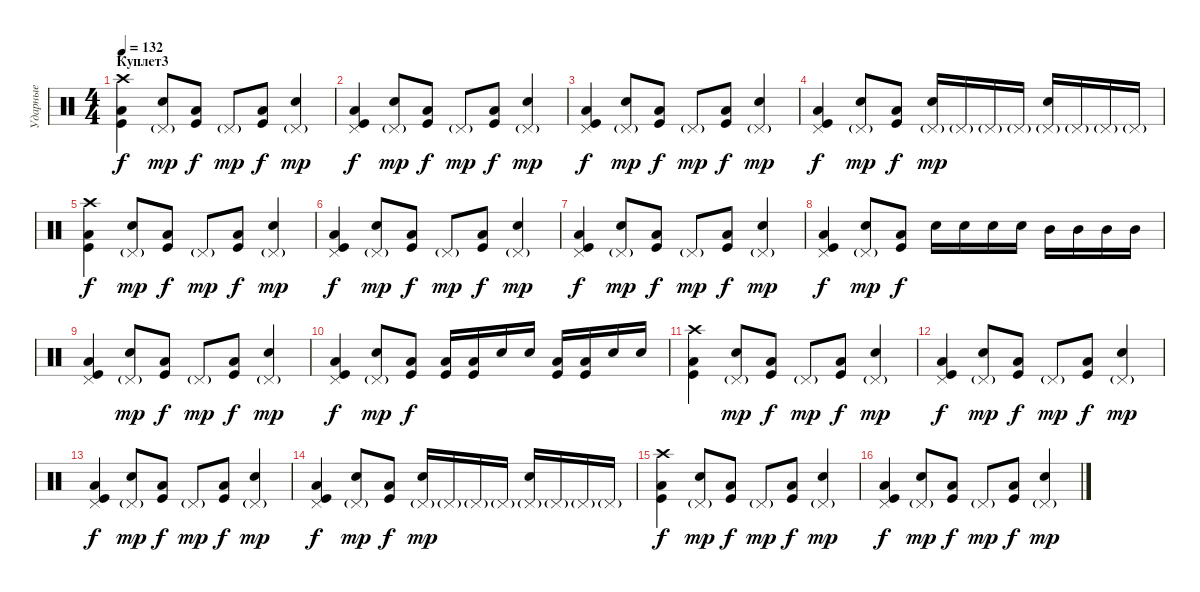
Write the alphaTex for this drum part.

\track ("Ударные" "Ударные") {instrument percussion}
\staff {score}
\articulation defaults
\ts (4 4)
\section ("" "Куплет3")
\tempo 132
\clef neutral
\ks c
("Crash high (hit)" "Low Tom (hit)" "Kick (hit)").4{dy f} ("Pedal Hi-Hat (hit)"{g} "Electric Snare (hit)").8{dy mp} ("Low Tom (hit)" "Kick (hit)").8{dy f} "Pedal Hi-Hat (hit)"{g}.8{dy mp} ("Low Tom (hit)" "Kick (hit)").8{dy f} ("Pedal Hi-Hat (hit)"{g} "Electric Snare (hit)").4{dy mp} |
("Pedal Hi-Hat (hit)" "Low Tom (hit)" "Kick (hit)").4{dy f} ("Pedal Hi-Hat (hit)"{g} "Electric Snare (hit)").8{dy mp} ("Low Tom (hit)" "Kick (hit)").8{dy f} "Pedal Hi-Hat (hit)"{g}.8{dy mp} ("Low Tom (hit)" "Kick (hit)").8{dy f} ("Pedal Hi-Hat (hit)"{g} "Electric Snare (hit)").4{dy mp} |
("Pedal Hi-Hat (hit)" "Low Tom (hit)" "Kick (hit)").4{dy f} ("Pedal Hi-Hat (hit)"{g} "Electric Snare (hit)").8{dy mp} ("Low Tom (hit)" "Kick (hit)").8{dy f} "Pedal Hi-Hat (hit)"{g}.8{dy mp} ("Low Tom (hit)" "Kick (hit)").8{dy f} ("Pedal Hi-Hat (hit)"{g} "Electric Snare (hit)").4{dy mp} |
("Pedal Hi-Hat (hit)" "Low Tom (hit)" "Kick (hit)").4{dy f} ("Pedal Hi-Hat (hit)"{g} "Electric Snare (hit)").8{dy mp} ("Low Tom (hit)" "Kick (hit)").8{dy f} ("Pedal Hi-Hat (hit)"{g} "Electric Snare (hit)").16{dy mp} "Pedal Hi-Hat (hit)"{g}.16 "Pedal Hi-Hat (hit)"{g}.16 "Pedal Hi-Hat (hit)"{g}.16 ("Pedal Hi-Hat (hit)"{g} "Electric Snare (hit)").16 "Pedal Hi-Hat (hit)"{g}.16 "Pedal Hi-Hat (hit)"{g}.16 "Pedal Hi-Hat (hit)"{g}.16 |
("Crash high (hit)" "Low Tom (hit)" "Kick (hit)").4{dy f} ("Pedal Hi-Hat (hit)"{g} "Electric Snare (hit)").8{dy mp} ("Low Tom (hit)" "Kick (hit)").8{dy f} "Pedal Hi-Hat (hit)"{g}.8{dy mp} ("Low Tom (hit)" "Kick (hit)").8{dy f} ("Pedal Hi-Hat (hit)"{g} "Electric Snare (hit)").4{dy mp} |
("Pedal Hi-Hat (hit)" "Low Tom (hit)" "Kick (hit)").4{dy f} ("Pedal Hi-Hat (hit)"{g} "Electric Snare (hit)").8{dy mp} ("Low Tom (hit)" "Kick (hit)").8{dy f} "Pedal Hi-Hat (hit)"{g}.8{dy mp} ("Low Tom (hit)" "Kick (hit)").8{dy f} ("Pedal Hi-Hat (hit)"{g} "Electric Snare (hit)").4{dy mp} |
("Pedal Hi-Hat (hit)" "Low Tom (hit)" "Kick (hit)").4{dy f} ("Pedal Hi-Hat (hit)"{g} "Electric Snare (hit)").8{dy mp} ("Low Tom (hit)" "Kick (hit)").8{dy f} "Pedal Hi-Hat (hit)"{g}.8{dy mp} ("Low Tom (hit)" "Kick (hit)").8{dy f} ("Pedal Hi-Hat (hit)"{g} "Electric Snare (hit)").4{dy mp} |
("Pedal Hi-Hat (hit)" "Low Tom (hit)" "Kick (hit)").4{dy f} ("Pedal Hi-Hat (hit)"{g} "Electric Snare (hit)").8{dy mp} ("Low Tom (hit)" "Kick (hit)").8{dy f} "Electric Snare (hit)".16 "Electric Snare (hit)".16 "Electric Snare (hit)".16 "Electric Snare (hit)".16 "Mid Tom (hit)".16 "Mid Tom (hit)".16 "Mid Tom (hit)".16 "Mid Tom (hit)".16 |
("Pedal Hi-Hat (hit)" "Low Tom (hit)" "Kick (hit)").4 ("Pedal Hi-Hat (hit)"{g} "Electric Snare (hit)").8{dy mp} ("Low Tom (hit)" "Kick (hit)").8{dy f} "Pedal Hi-Hat (hit)"{g}.8{dy mp} ("Low Tom (hit)" "Kick (hit)").8{dy f} ("Pedal Hi-Hat (hit)"{g} "Electric Snare (hit)").4{dy mp} |
("Pedal Hi-Hat (hit)" "Low Tom (hit)" "Kick (hit)").4{dy f} ("Pedal Hi-Hat (hit)"{g} "Electric Snare (hit)").8{dy mp} ("Low Tom (hit)" "Kick (hit)").8{dy f} ("Low Tom (hit)" "Kick (hit)").16 ("Low Tom (hit)" "Kick (hit)").16 "Electric Snare (hit)".16 "Electric Snare (hit)".16 ("Low Tom (hit)" "Kick (hit)").16 ("Low Tom (hit)" "Kick (hit)").16 "Electric Snare (hit)".16 "Electric Snare (hit)".16 |
("Crash high (hit)" "Low Tom (hit)" "Kick (hit)").4 ("Pedal Hi-Hat (hit)"{g} "Electric Snare (hit)").8{dy mp} ("Low Tom (hit)" "Kick (hit)").8{dy f} "Pedal Hi-Hat (hit)"{g}.8{dy mp} ("Low Tom (hit)" "Kick (hit)").8{dy f} ("Pedal Hi-Hat (hit)"{g} "Electric Snare (hit)").4{dy mp} |
("Pedal Hi-Hat (hit)" "Low Tom (hit)" "Kick (hit)").4{dy f} ("Pedal Hi-Hat (hit)"{g} "Electric Snare (hit)").8{dy mp} ("Low Tom (hit)" "Kick (hit)").8{dy f} "Pedal Hi-Hat (hit)"{g}.8{dy mp} ("Low Tom (hit)" "Kick (hit)").8{dy f} ("Pedal Hi-Hat (hit)"{g} "Electric Snare (hit)").4{dy mp} |
("Pedal Hi-Hat (hit)" "Low Tom (hit)" "Kick (hit)").4{dy f} ("Pedal Hi-Hat (hit)"{g} "Electric Snare (hit)").8{dy mp} ("Low Tom (hit)" "Kick (hit)").8{dy f} "Pedal Hi-Hat (hit)"{g}.8{dy mp} ("Low Tom (hit)" "Kick (hit)").8{dy f} ("Pedal Hi-Hat (hit)"{g} "Electric Snare (hit)").4{dy mp} |
("Pedal Hi-Hat (hit)" "Low Tom (hit)" "Kick (hit)").4{dy f} ("Pedal Hi-Hat (hit)"{g} "Electric Snare (hit)").8{dy mp} ("Low Tom (hit)" "Kick (hit)").8{dy f} ("Pedal Hi-Hat (hit)"{g} "Electric Snare (hit)").16{dy mp} "Pedal Hi-Hat (hit)"{g}.16 "Pedal Hi-Hat (hit)"{g}.16 "Pedal Hi-Hat (hit)"{g}.16 ("Pedal Hi-Hat (hit)"{g} "Electric Snare (hit)").16 "Pedal Hi-Hat (hit)"{g}.16 "Pedal Hi-Hat (hit)"{g}.16 "Pedal Hi-Hat (hit)"{g}.16 |
("Crash high (hit)" "Low Tom (hit)" "Kick (hit)").4{dy f} ("Pedal Hi-Hat (hit)"{g} "Electric Snare (hit)").8{dy mp} ("Low Tom (hit)" "Kick (hit)").8{dy f} "Pedal Hi-Hat (hit)"{g}.8{dy mp} ("Low Tom (hit)" "Kick (hit)").8{dy f} ("Pedal Hi-Hat (hit)"{g} "Electric Snare (hit)").4{dy mp} |
("Pedal Hi-Hat (hit)" "Low Tom (hit)" "Kick (hit)").4{dy f} ("Pedal Hi-Hat (hit)"{g} "Electric Snare (hit)").8{dy mp} ("Low Tom (hit)" "Kick (hit)").8{dy f} "Pedal Hi-Hat (hit)"{g}.8{dy mp} ("Low Tom (hit)" "Kick (hit)").8{dy f} ("Pedal Hi-Hat (hit)"{g} "Electric Snare (hit)").4{dy mp}
